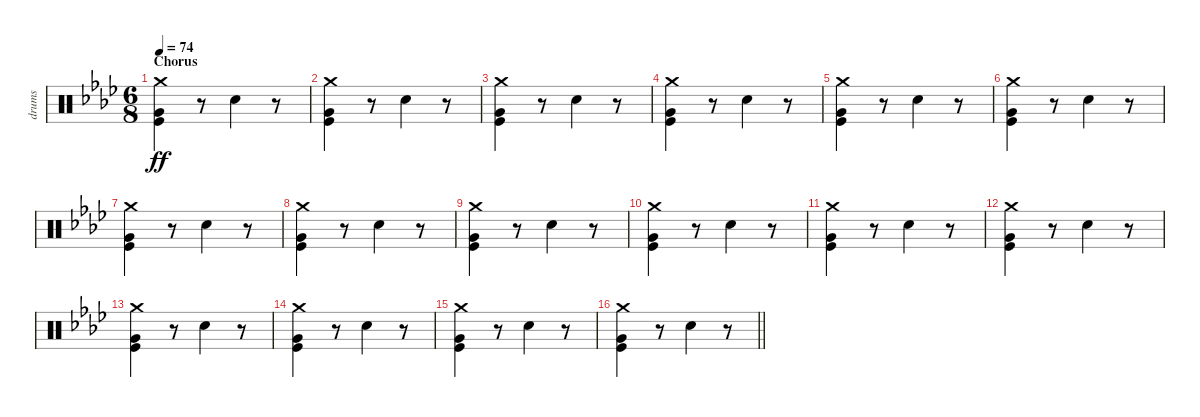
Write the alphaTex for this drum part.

\track ("drums" "drums") {instrument percussion}
\staff {score}
\articulation defaults
\ts (6 8)
\section ("" "Chorus")
\tempo 74
\clef neutral
\ks ab
("Crash medium (hit)" "Very Low Tom (hit)" "Kick (hit)").4{dy ff} r.8 "Electric Snare (hit)".4 r.8 |
("Crash medium (hit)" "Very Low Tom (hit)" "Kick (hit)").4 r.8 "Electric Snare (hit)".4 r.8 |
("Crash medium (hit)" "Very Low Tom (hit)" "Kick (hit)").4 r.8 "Electric Snare (hit)".4 r.8 |
("Crash medium (hit)" "Very Low Tom (hit)" "Kick (hit)").4 r.8 "Electric Snare (hit)".4 r.8 |
("Crash medium (hit)" "Very Low Tom (hit)" "Kick (hit)").4 r.8 "Electric Snare (hit)".4 r.8 |
("Crash medium (hit)" "Very Low Tom (hit)" "Kick (hit)").4 r.8 "Electric Snare (hit)".4 r.8 |
("Crash medium (hit)" "Very Low Tom (hit)" "Kick (hit)").4 r.8 "Electric Snare (hit)".4 r.8 |
("Crash medium (hit)" "Very Low Tom (hit)" "Kick (hit)").4 r.8 "Electric Snare (hit)".4 r.8 |
("Crash medium (hit)" "Very Low Tom (hit)" "Kick (hit)").4 r.8 "Electric Snare (hit)".4 r.8 |
("Crash medium (hit)" "Very Low Tom (hit)" "Kick (hit)").4 r.8 "Electric Snare (hit)".4 r.8 |
("Crash medium (hit)" "Very Low Tom (hit)" "Kick (hit)").4 r.8 "Electric Snare (hit)".4 r.8 |
("Crash medium (hit)" "Very Low Tom (hit)" "Kick (hit)").4 r.8 "Electric Snare (hit)".4 r.8 |
("Crash medium (hit)" "Very Low Tom (hit)" "Kick (hit)").4 r.8 "Electric Snare (hit)".4 r.8 |
("Crash medium (hit)" "Very Low Tom (hit)" "Kick (hit)").4 r.8 "Electric Snare (hit)".4 r.8 |
("Crash medium (hit)" "Very Low Tom (hit)" "Kick (hit)").4 r.8 "Electric Snare (hit)".4 r.8 |
\barLineRight lightlight
("Crash medium (hit)" "Very Low Tom (hit)" "Kick (hit)").4 r.8 "Electric Snare (hit)".4 r.8
